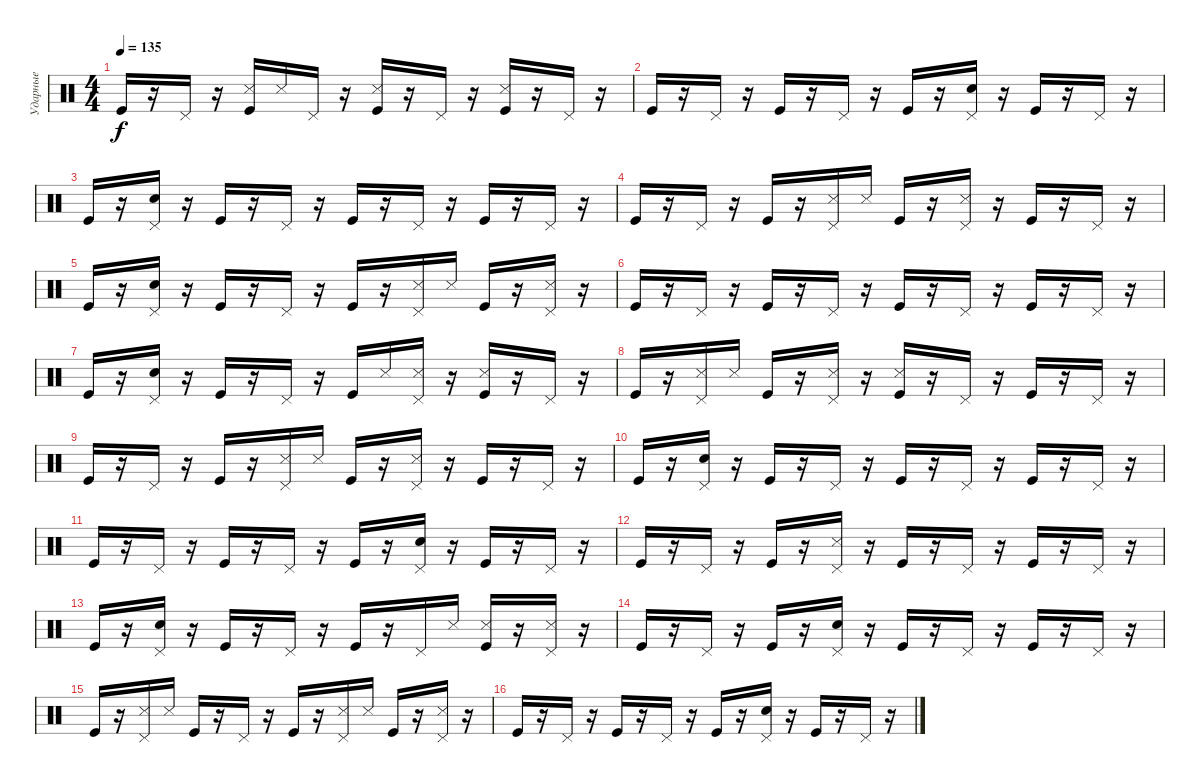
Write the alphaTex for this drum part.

\track ("Ударные" "Ударные") {instrument percussion}
\staff {score}
\articulation defaults
\ts (4 4)
\tempo 135
\clef neutral
\ks c "Kick (hit)".16{dy f}
r.16 "Pedal Hi-Hat (hit)".16 r.16 ("Snare (side stick) 3" "Kick (hit)").16 "Snare (side stick) 3".16 "Pedal Hi-Hat (hit)".16 r.16 ("Snare (side stick) 3" "Kick (hit)").16 r.16 "Pedal Hi-Hat (hit)".16 r.16 ("Snare (side stick) 3" "Kick (hit)").16 r.16 "Pedal Hi-Hat (hit)".16 r.16 |
"Kick (hit)".16 r.16 "Pedal Hi-Hat (hit)".16 r.16 "Kick (hit)".16 r.16 "Pedal Hi-Hat (hit)".16 r.16 "Kick (hit)".16 r.16 ("Snare (hit) 2" "Pedal Hi-Hat (hit)").16 r.16 "Kick (hit)".16 r.16 "Pedal Hi-Hat (hit)".16 r.16 |
"Kick (hit)".16 r.16 ("Snare (hit) 2" "Pedal Hi-Hat (hit)").16 r.16 "Kick (hit)".16 r.16 "Pedal Hi-Hat (hit)".16 r.16 "Kick (hit)".16 r.16 "Pedal Hi-Hat (hit)".16 r.16 "Kick (hit)".16 r.16 "Pedal Hi-Hat (hit)".16 r.16 |
"Kick (hit)".16 r.16 "Pedal Hi-Hat (hit)".16 r.16 "Kick (hit)".16 r.16 ("Snare (side stick) 3" "Pedal Hi-Hat (hit)").16 "Snare (side stick) 3".16 "Kick (hit)".16 r.16 ("Snare (side stick) 3" "Pedal Hi-Hat (hit)").16 r.16 "Kick (hit)".16 r.16 "Pedal Hi-Hat (hit)".16 r.16 |
"Kick (hit)".16 r.16 ("Snare (hit) 2" "Pedal Hi-Hat (hit)").16 r.16 "Kick (hit)".16 r.16 "Pedal Hi-Hat (hit)".16 r.16 "Kick (hit)".16 r.16 ("Snare (side stick) 3" "Pedal Hi-Hat (hit)").16 "Snare (side stick) 3".16 "Kick (hit)".16 r.16 ("Snare (side stick) 3" "Pedal Hi-Hat (hit)").16 r.16 |
"Kick (hit)".16 r.16 "Pedal Hi-Hat (hit)".16 r.16 "Kick (hit)".16 r.16 "Pedal Hi-Hat (hit)".16 r.16 "Kick (hit)".16 r.16 "Pedal Hi-Hat (hit)".16 r.16 "Kick (hit)".16 r.16 "Pedal Hi-Hat (hit)".16 r.16 |
"Kick (hit)".16 r.16 ("Snare (hit) 2" "Pedal Hi-Hat (hit)").16 r.16 "Kick (hit)".16 r.16 "Pedal Hi-Hat (hit)".16 r.16 "Kick (hit)".16 "Snare (side stick) 3".16 ("Snare (side stick) 3" "Pedal Hi-Hat (hit)").16 r.16 ("Snare (side stick) 3" "Kick (hit)").16 r.16 "Pedal Hi-Hat (hit)".16 r.16 |
"Kick (hit)".16 r.16 ("Snare (side stick) 3" "Pedal Hi-Hat (hit)").16 "Snare (side stick) 3".16 "Kick (hit)".16 r.16 ("Snare (side stick) 3" "Pedal Hi-Hat (hit)").16 r.16 ("Snare (side stick) 3" "Kick (hit)").16 r.16 "Pedal Hi-Hat (hit)".16 r.16 "Kick (hit)".16 r.16 "Pedal Hi-Hat (hit)".16 r.16 |
"Kick (hit)".16 r.16 "Pedal Hi-Hat (hit)".16 r.16 "Kick (hit)".16 r.16 ("Snare (side stick) 3" "Pedal Hi-Hat (hit)").16 "Snare (side stick) 3".16 "Kick (hit)".16 r.16 ("Snare (side stick) 3" "Pedal Hi-Hat (hit)").16 r.16 "Kick (hit)".16 r.16 "Pedal Hi-Hat (hit)".16 r.16 |
"Kick (hit)".16 r.16 ("Snare (hit) 2" "Pedal Hi-Hat (hit)").16 r.16 "Kick (hit)".16 r.16 "Pedal Hi-Hat (hit)".16 r.16 "Kick (hit)".16 r.16 "Pedal Hi-Hat (hit)".16 r.16 "Kick (hit)".16 r.16 "Pedal Hi-Hat (hit)".16 r.16 |
"Kick (hit)".16 r.16 "Pedal Hi-Hat (hit)".16 r.16 "Kick (hit)".16 r.16 "Pedal Hi-Hat (hit)".16 r.16 "Kick (hit)".16 r.16 ("Snare (hit) 2" "Pedal Hi-Hat (hit)").16 r.16 "Kick (hit)".16 r.16 "Pedal Hi-Hat (hit)".16 r.16 |
"Kick (hit)".16 r.16 "Pedal Hi-Hat (hit)".16 r.16 "Kick (hit)".16 r.16 ("Snare (side stick) 3" "Pedal Hi-Hat (hit)").16 r.16 "Kick (hit)".16 r.16 "Pedal Hi-Hat (hit)".16 r.16 "Kick (hit)".16 r.16 "Pedal Hi-Hat (hit)".16 r.16 |
"Kick (hit)".16 r.16 ("Snare (hit) 2" "Pedal Hi-Hat (hit)").16 r.16 "Kick (hit)".16 r.16 "Pedal Hi-Hat (hit)".16 r.16 "Kick (hit)".16 r.16 "Pedal Hi-Hat (hit)".16 "Snare (side stick) 3".16 ("Snare (side stick) 3" "Kick (hit)").16 r.16 ("Snare (side stick) 3" "Pedal Hi-Hat (hit)").16 r.16 |
"Kick (hit)".16 r.16 "Pedal Hi-Hat (hit)".16 r.16 "Kick (hit)".16 r.16 ("Snare (hit) 2" "Pedal Hi-Hat (hit)").16 r.16 "Kick (hit)".16 r.16 "Pedal Hi-Hat (hit)".16 r.16 "Kick (hit)".16 r.16 "Pedal Hi-Hat (hit)".16 r.16 |
"Kick (hit)".16 r.16 ("Snare (side stick) 3" "Pedal Hi-Hat (hit)").16 "Snare (side stick) 3".16 "Kick (hit)".16 r.16 "Pedal Hi-Hat (hit)".16 r.16 "Kick (hit)".16 r.16 ("Snare (side stick) 3" "Pedal Hi-Hat (hit)").16 "Snare (side stick) 3".16 "Kick (hit)".16 r.16 ("Snare (side stick) 3" "Pedal Hi-Hat (hit)").16 r.16 |
"Kick (hit)".16 r.16 "Pedal Hi-Hat (hit)".16 r.16 "Kick (hit)".16 r.16 "Pedal Hi-Hat (hit)".16 r.16 "Kick (hit)".16 r.16 ("Snare (hit) 2" "Pedal Hi-Hat (hit)").16 r.16 "Kick (hit)".16 r.16 "Pedal Hi-Hat (hit)".16 r.16
